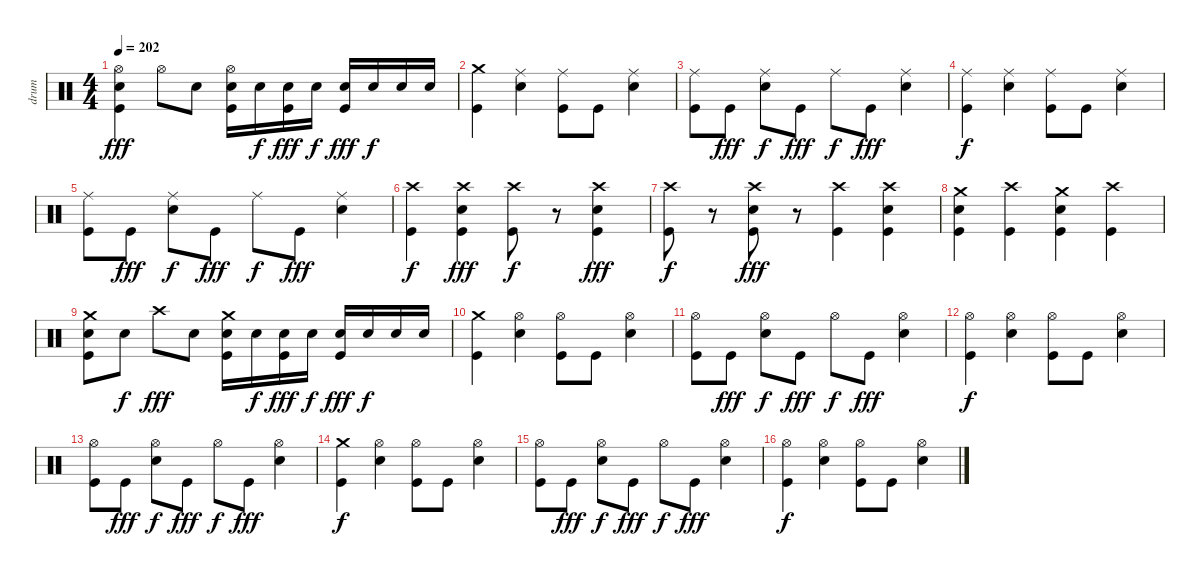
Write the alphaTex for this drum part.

\track ("drum" "drum") {instrument percussion}
\staff {score}
\articulation defaults
\ts (4 4)
\tempo 202
\clef neutral
\ks c
("Hi-Hat (open)" "Electric Snare (hit)" "Kick (hit)").4{dy fff} "Hi-Hat (open)".8 "Electric Snare (hit)".8 ("Hi-Hat (open)" "Electric Snare (hit)" "Kick (hit)").16 "Electric Snare (hit)".16{dy f} ("Electric Snare (hit)" "Kick (hit)").16{dy fff} "Electric Snare (hit)".16{dy f} ("Electric Snare (hit)" "Kick (hit)").16{dy fff} "Electric Snare (hit)".16{dy f} "Electric Snare (hit)".16 "Electric Snare (hit)".16 |
("Crash medium (hit)" "Kick (hit)").4 ("Ride (middle)" "Electric Snare (hit)").4 ("Ride (middle)" "Kick (hit)").8 "Kick (hit)".8 ("Ride (middle)" "Electric Snare (hit)").4 |
("Ride (middle)" "Kick (hit)").8 "Kick (hit)".8{dy fff} ("Ride (middle)" "Electric Snare (hit)").8{dy f} "Kick (hit)".8{dy fff} "Ride (middle)".8{dy f} "Kick (hit)".8{dy fff} ("Ride (middle)" "Electric Snare (hit)").4 |
("Ride (middle)" "Kick (hit)").4{dy f} ("Ride (middle)" "Electric Snare (hit)").4 ("Ride (middle)" "Kick (hit)").8 "Kick (hit)".8 ("Ride (middle)" "Electric Snare (hit)").4 |
("Ride (middle)" "Kick (hit)").8 "Kick (hit)".8{dy fff} ("Ride (middle)" "Electric Snare (hit)").8{dy f} "Kick (hit)".8{dy fff} "Ride (middle)".8{dy f} "Kick (hit)".8{dy fff} ("Ride (middle)" "Electric Snare (hit)").4 |
("Crash high (hit)" "Kick (hit)").4{dy f} ("Crash high (hit)" "Electric Snare (hit)" "Kick (hit)").4{dy fff} ("Crash high (hit)" "Kick (hit)").8{dy f} r.8 ("Crash high (hit)" "Electric Snare (hit)" "Kick (hit)").4{dy fff} |
("Crash high (hit)" "Kick (hit)").8{dy f} r.8 ("Crash high (hit)" "Electric Snare (hit)" "Kick (hit)").8{dy fff} r.8 ("Crash high (hit)" "Kick (hit)").4 ("Crash high (hit)" "Electric Snare (hit)" "Kick (hit)").4 |
("Crash medium (hit)" "Electric Snare (hit)" "Kick (hit)").4 ("Crash high (hit)" "Kick (hit)").4 ("Crash medium (hit)" "Electric Snare (hit)" "Kick (hit)").4 ("Crash high (hit)" "Kick (hit)").4 |
("Crash medium (hit)" "Electric Snare (hit)" "Kick (hit)").8 "Electric Snare (hit)".8{dy f} "Crash high (hit)".8{dy fff} "Electric Snare (hit)".8 ("Crash medium (hit)" "Electric Snare (hit)" "Kick (hit)").16 "Electric Snare (hit)".16{dy f} ("Electric Snare (hit)" "Kick (hit)").16{dy fff} "Electric Snare (hit)".16{dy f} ("Electric Snare (hit)" "Kick (hit)").16{dy fff} "Electric Snare (hit)".16{dy f} "Electric Snare (hit)".16 "Electric Snare (hit)".16 |
("Crash medium (hit)" "Kick (hit)").4 ("Hi-Hat (open)" "Electric Snare (hit)").4 ("Hi-Hat (open)" "Kick (hit)").8 "Kick (hit)".8 ("Hi-Hat (open)" "Electric Snare (hit)").4 |
("Hi-Hat (open)" "Kick (hit)").8 "Kick (hit)".8{dy fff} ("Hi-Hat (open)" "Electric Snare (hit)").8{dy f} "Kick (hit)".8{dy fff} "Hi-Hat (open)".8{dy f} "Kick (hit)".8{dy fff} ("Hi-Hat (open)" "Electric Snare (hit)").4 |
("Hi-Hat (open)" "Kick (hit)").4{dy f} ("Hi-Hat (open)" "Electric Snare (hit)").4 ("Hi-Hat (open)" "Kick (hit)").8 "Kick (hit)".8 ("Hi-Hat (open)" "Electric Snare (hit)").4 |
("Hi-Hat (open)" "Kick (hit)").8 "Kick (hit)".8{dy fff} ("Hi-Hat (open)" "Electric Snare (hit)").8{dy f} "Kick (hit)".8{dy fff} "Hi-Hat (open)".8{dy f} "Kick (hit)".8{dy fff} ("Hi-Hat (open)" "Electric Snare (hit)").4 |
("Crash medium (hit)" "Kick (hit)").4{dy f} ("Hi-Hat (open)" "Electric Snare (hit)").4 ("Hi-Hat (open)" "Kick (hit)").8 "Kick (hit)".8 ("Hi-Hat (open)" "Electric Snare (hit)").4 |
("Hi-Hat (open)" "Kick (hit)").8 "Kick (hit)".8{dy fff} ("Hi-Hat (open)" "Electric Snare (hit)").8{dy f} "Kick (hit)".8{dy fff} "Hi-Hat (open)".8{dy f} "Kick (hit)".8{dy fff} ("Hi-Hat (open)" "Electric Snare (hit)").4 |
("Hi-Hat (open)" "Kick (hit)").4{dy f} ("Hi-Hat (open)" "Electric Snare (hit)").4 ("Hi-Hat (open)" "Kick (hit)").8 "Kick (hit)".8 ("Hi-Hat (open)" "Electric Snare (hit)").4
